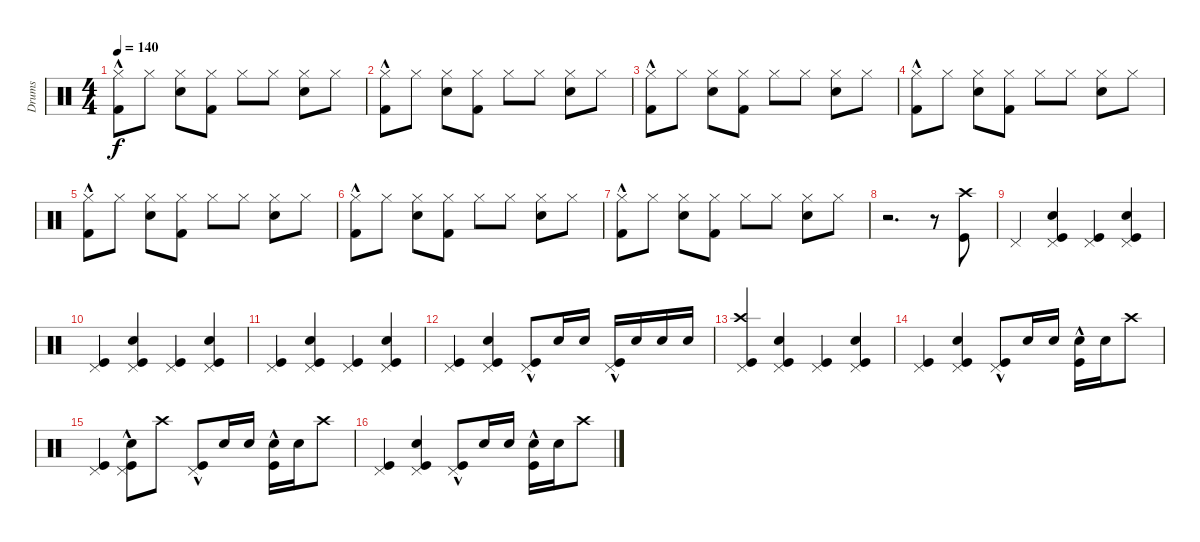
\track ("Drums" "Drums") {instrument percussion}
\staff {score}
\articulation defaults
\ts (4 4)
\tempo 140
\clef neutral
\ks c
("Kick (hit) 2"{hac} "Hi-Hat (closed)").8{dy f volume 13} "Hi-Hat (closed)".8 ("Hi-Hat (closed)" "Snare (hit) 2").8 ("Kick (hit) 2" "Hi-Hat (closed)").8 "Hi-Hat (closed)".8 "Hi-Hat (closed)".8 ("Hi-Hat (closed)" "Snare (hit) 2").8 "Hi-Hat (closed)".8 |
("Kick (hit) 2"{hac} "Hi-Hat (closed)").8 "Hi-Hat (closed)".8 ("Hi-Hat (closed)" "Snare (hit) 2").8 ("Kick (hit) 2" "Hi-Hat (closed)").8 "Hi-Hat (closed)".8 "Hi-Hat (closed)".8 ("Hi-Hat (closed)" "Snare (hit) 2").8 "Hi-Hat (closed)".8 |
("Kick (hit) 2"{hac} "Hi-Hat (closed)").8 "Hi-Hat (closed)".8 ("Hi-Hat (closed)" "Snare (hit) 2").8 ("Kick (hit) 2" "Hi-Hat (closed)").8 "Hi-Hat (closed)".8 "Hi-Hat (closed)".8 ("Hi-Hat (closed)" "Snare (hit) 2").8 "Hi-Hat (closed)".8 |
("Kick (hit) 2"{hac} "Hi-Hat (closed)").8 "Hi-Hat (closed)".8 ("Hi-Hat (closed)" "Snare (hit) 2").8 ("Kick (hit) 2" "Hi-Hat (closed)").8 "Hi-Hat (closed)".8 "Hi-Hat (closed)".8 ("Hi-Hat (closed)" "Snare (hit) 2").8 "Hi-Hat (closed)".8 |
("Kick (hit) 2"{hac} "Hi-Hat (closed)").8 "Hi-Hat (closed)".8 ("Hi-Hat (closed)" "Snare (hit) 2").8 ("Kick (hit) 2" "Hi-Hat (closed)").8 "Hi-Hat (closed)".8 "Hi-Hat (closed)".8 ("Hi-Hat (closed)" "Snare (hit) 2").8 "Hi-Hat (closed)".8 |
("Kick (hit) 2"{hac} "Hi-Hat (closed)").8 "Hi-Hat (closed)".8 ("Hi-Hat (closed)" "Snare (hit) 2").8 ("Kick (hit) 2" "Hi-Hat (closed)").8 "Hi-Hat (closed)".8 "Hi-Hat (closed)".8 ("Hi-Hat (closed)" "Snare (hit) 2").8 "Hi-Hat (closed)".8 |
("Kick (hit) 2"{hac} "Hi-Hat (closed)").8 "Hi-Hat (closed)".8 ("Hi-Hat (closed)" "Snare (hit) 2").8 ("Kick (hit) 2" "Hi-Hat (closed)").8 "Hi-Hat (closed)".8 "Hi-Hat (closed)".8 ("Hi-Hat (closed)" "Snare (hit) 2").8 "Hi-Hat (closed)".8 |
r.2{d} r.8 ("Kick (hit)" "Crash high (hit)").8{volume 16} |
"Pedal Hi-Hat (hit)".4 ("Pedal Hi-Hat (hit)" "Snare (hit) 2" "Kick (hit)").4 ("Pedal Hi-Hat (hit)" "Kick (hit)").4 ("Pedal Hi-Hat (hit)" "Snare (hit) 2" "Kick (hit)").4 |
("Pedal Hi-Hat (hit)" "Kick (hit)").4 ("Pedal Hi-Hat (hit)" "Snare (hit) 2" "Kick (hit)").4 ("Pedal Hi-Hat (hit)" "Kick (hit)").4 ("Pedal Hi-Hat (hit)" "Snare (hit) 2" "Kick (hit)").4 |
("Pedal Hi-Hat (hit)" "Kick (hit)").4 ("Pedal Hi-Hat (hit)" "Snare (hit) 2" "Kick (hit)").4 ("Pedal Hi-Hat (hit)" "Kick (hit)").4 ("Pedal Hi-Hat (hit)" "Snare (hit) 2" "Kick (hit)").4 |
("Pedal Hi-Hat (hit)" "Kick (hit)").4 ("Pedal Hi-Hat (hit)" "Snare (hit) 2" "Kick (hit)").4 ("Kick (hit)"{hac} "Pedal Hi-Hat (hit)").8 "Snare (hit) 2".16 "Snare (hit) 2".16 ("Kick (hit)"{hac} "Pedal Hi-Hat (hit)").16 "Snare (hit) 2".16 "Snare (hit) 2".16 "Snare (hit) 2".16 |
("Pedal Hi-Hat (hit)" "Kick (hit)" "Crash high (hit)").4 ("Pedal Hi-Hat (hit)" "Snare (hit) 2" "Kick (hit)").4 ("Pedal Hi-Hat (hit)" "Kick (hit)").4 ("Pedal Hi-Hat (hit)" "Snare (hit) 2" "Kick (hit)").4 |
("Pedal Hi-Hat (hit)" "Kick (hit)").4 ("Pedal Hi-Hat (hit)" "Snare (hit) 2" "Kick (hit)").4 ("Kick (hit)"{hac} "Pedal Hi-Hat (hit)").8 "Snare (hit) 2".16 "Snare (hit) 2".16 ("Kick (hit)"{hac} "Snare (hit) 2").16 "Snare (hit) 2".16 "Crash high (hit)".8 |
("Kick (hit)" "Pedal Hi-Hat (hit)").4 ("Kick (hit)"{hac} "Snare (hit) 2" "Pedal Hi-Hat (hit)").8 "Crash high (hit)".8 ("Kick (hit)"{hac} "Pedal Hi-Hat (hit)").8 "Snare (hit) 2".16 "Snare (hit) 2".16 ("Kick (hit)"{hac} "Snare (hit) 2").16 "Snare (hit) 2".16 "Crash high (hit)".8 |
("Pedal Hi-Hat (hit)" "Kick (hit)").4 ("Pedal Hi-Hat (hit)" "Snare (hit) 2" "Kick (hit)").4 ("Kick (hit)"{hac} "Pedal Hi-Hat (hit)").8 "Snare (hit) 2".16 "Snare (hit) 2".16 ("Kick (hit)"{hac} "Snare (hit) 2").16 "Snare (hit) 2".16 "Crash high (hit)".8
